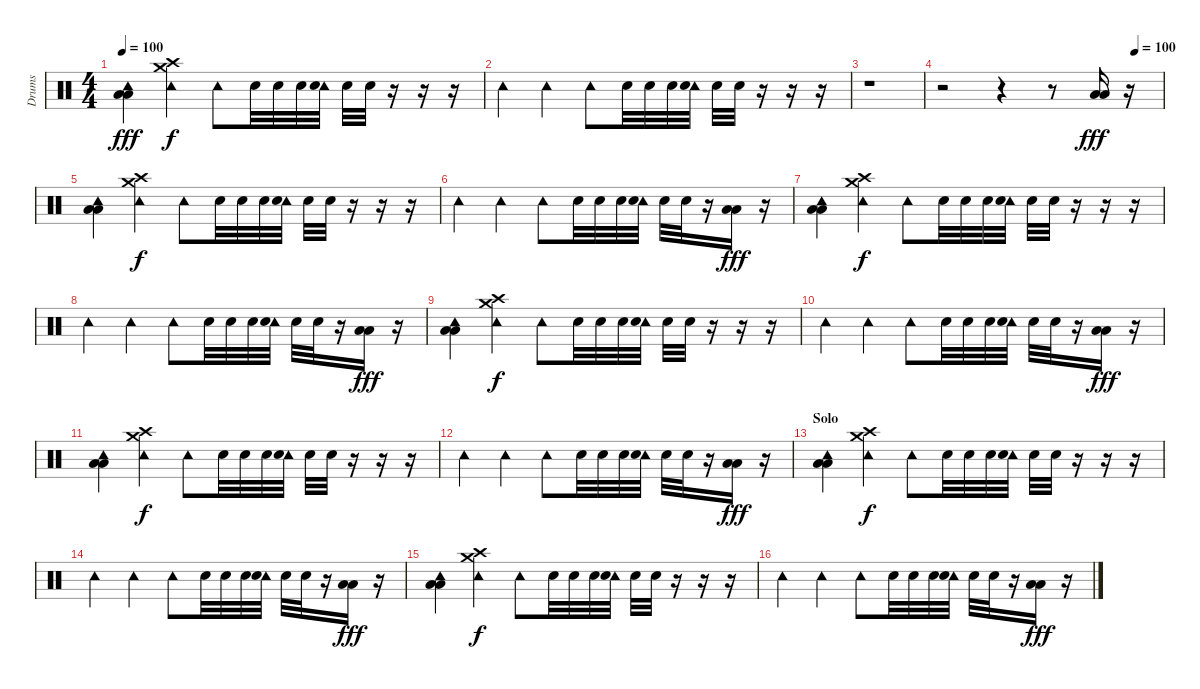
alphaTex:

\track ("Drums" "Drums") {instrument percussion}
\staff {score}
\articulation defaults
\ts (4 4)
\tempo 100
\clef neutral
\ks c
("Tambourine (hit)" "Low Floor Tom (hit)" "Low Tom (hit)").4{dy fff} ("Tambourine (hit)" "Crash medium (hit)" "Crash high (hit)").4{dy f} "Tambourine (hit)".8 "Snare (hit) 2".32 "Snare (hit) 2".32 "Snare (hit) 2".32 ("Tambourine (hit)" "Snare (hit) 2").32 "Snare (hit) 2".32 "Snare (hit) 2".32 r.16 r.16 r.16 |
"Tambourine (hit)".4 "Tambourine (hit)".4 "Tambourine (hit)".8 "Snare (hit) 2".32 "Snare (hit) 2".32 "Snare (hit) 2".32 ("Tambourine (hit)" "Snare (hit) 2").32 "Snare (hit) 2".32 "Snare (hit) 2".32 r.16 r.16 r.16 |
r.1 |
\tempo (100 0.875)
r.2 r.4 r.8 ("Low Floor Tom (hit)" "Low Tom (hit)").16{dy fff} r.16 |
("Tambourine (hit)" "Low Floor Tom (hit)" "Low Tom (hit)").4 ("Tambourine (hit)" "Crash medium (hit)" "Crash high (hit)").4{dy f} "Tambourine (hit)".8 "Snare (hit) 2".32 "Snare (hit) 2".32 "Snare (hit) 2".32 ("Tambourine (hit)" "Snare (hit) 2").32 "Snare (hit) 2".32 "Snare (hit) 2".32 r.16 r.16 r.16 |
"Tambourine (hit)".4 "Tambourine (hit)".4 "Tambourine (hit)".8 "Snare (hit) 2".32 "Snare (hit) 2".32 "Snare (hit) 2".32 ("Tambourine (hit)" "Snare (hit) 2").32 "Snare (hit) 2".32 "Snare (hit) 2".32 r.16 ("Low Floor Tom (hit)" "Low Tom (hit)").16{dy fff} r.16 |
("Tambourine (hit)" "Low Floor Tom (hit)" "Low Tom (hit)").4 ("Tambourine (hit)" "Crash medium (hit)" "Crash high (hit)").4{dy f} "Tambourine (hit)".8 "Snare (hit) 2".32 "Snare (hit) 2".32 "Snare (hit) 2".32 ("Tambourine (hit)" "Snare (hit) 2").32 "Snare (hit) 2".32 "Snare (hit) 2".32 r.16 r.16 r.16 |
"Tambourine (hit)".4 "Tambourine (hit)".4 "Tambourine (hit)".8 "Snare (hit) 2".32 "Snare (hit) 2".32 "Snare (hit) 2".32 ("Tambourine (hit)" "Snare (hit) 2").32 "Snare (hit) 2".32 "Snare (hit) 2".32 r.16 ("Low Floor Tom (hit)" "Low Tom (hit)").16{dy fff} r.16 |
("Tambourine (hit)" "Low Floor Tom (hit)" "Low Tom (hit)").4 ("Tambourine (hit)" "Crash medium (hit)" "Crash high (hit)").4{dy f} "Tambourine (hit)".8 "Snare (hit) 2".32 "Snare (hit) 2".32 "Snare (hit) 2".32 ("Tambourine (hit)" "Snare (hit) 2").32 "Snare (hit) 2".32 "Snare (hit) 2".32 r.16 r.16 r.16 |
"Tambourine (hit)".4 "Tambourine (hit)".4 "Tambourine (hit)".8 "Snare (hit) 2".32 "Snare (hit) 2".32 "Snare (hit) 2".32 ("Tambourine (hit)" "Snare (hit) 2").32 "Snare (hit) 2".32 "Snare (hit) 2".32 r.16 ("Low Floor Tom (hit)" "Low Tom (hit)").16{dy fff} r.16 |
("Tambourine (hit)" "Low Floor Tom (hit)" "Low Tom (hit)").4 ("Tambourine (hit)" "Crash medium (hit)" "Crash high (hit)").4{dy f} "Tambourine (hit)".8 "Snare (hit) 2".32 "Snare (hit) 2".32 "Snare (hit) 2".32 ("Tambourine (hit)" "Snare (hit) 2").32 "Snare (hit) 2".32 "Snare (hit) 2".32 r.16 r.16 r.16 |
"Tambourine (hit)".4 "Tambourine (hit)".4 "Tambourine (hit)".8 "Snare (hit) 2".32 "Snare (hit) 2".32 "Snare (hit) 2".32 ("Tambourine (hit)" "Snare (hit) 2").32 "Snare (hit) 2".32 "Snare (hit) 2".32 r.16 ("Low Floor Tom (hit)" "Low Tom (hit)").16{dy fff} r.16 |
\section ("" "Solo")
("Tambourine (hit)" "Low Floor Tom (hit)" "Low Tom (hit)").4 ("Tambourine (hit)" "Crash medium (hit)" "Crash high (hit)").4{dy f} "Tambourine (hit)".8 "Snare (hit) 2".32 "Snare (hit) 2".32 "Snare (hit) 2".32 ("Tambourine (hit)" "Snare (hit) 2").32 "Snare (hit) 2".32 "Snare (hit) 2".32 r.16 r.16 r.16 |
"Tambourine (hit)".4 "Tambourine (hit)".4 "Tambourine (hit)".8 "Snare (hit) 2".32 "Snare (hit) 2".32 "Snare (hit) 2".32 ("Tambourine (hit)" "Snare (hit) 2").32 "Snare (hit) 2".32 "Snare (hit) 2".32 r.16 ("Low Floor Tom (hit)" "Low Tom (hit)").16{dy fff} r.16 |
("Tambourine (hit)" "Low Floor Tom (hit)" "Low Tom (hit)").4 ("Tambourine (hit)" "Crash medium (hit)" "Crash high (hit)").4{dy f} "Tambourine (hit)".8 "Snare (hit) 2".32 "Snare (hit) 2".32 "Snare (hit) 2".32 ("Tambourine (hit)" "Snare (hit) 2").32 "Snare (hit) 2".32 "Snare (hit) 2".32 r.16 r.16 r.16 |
"Tambourine (hit)".4 "Tambourine (hit)".4 "Tambourine (hit)".8 "Snare (hit) 2".32 "Snare (hit) 2".32 "Snare (hit) 2".32 ("Tambourine (hit)" "Snare (hit) 2").32 "Snare (hit) 2".32 "Snare (hit) 2".32 r.16 ("Low Floor Tom (hit)" "Low Tom (hit)").16{dy fff} r.16
